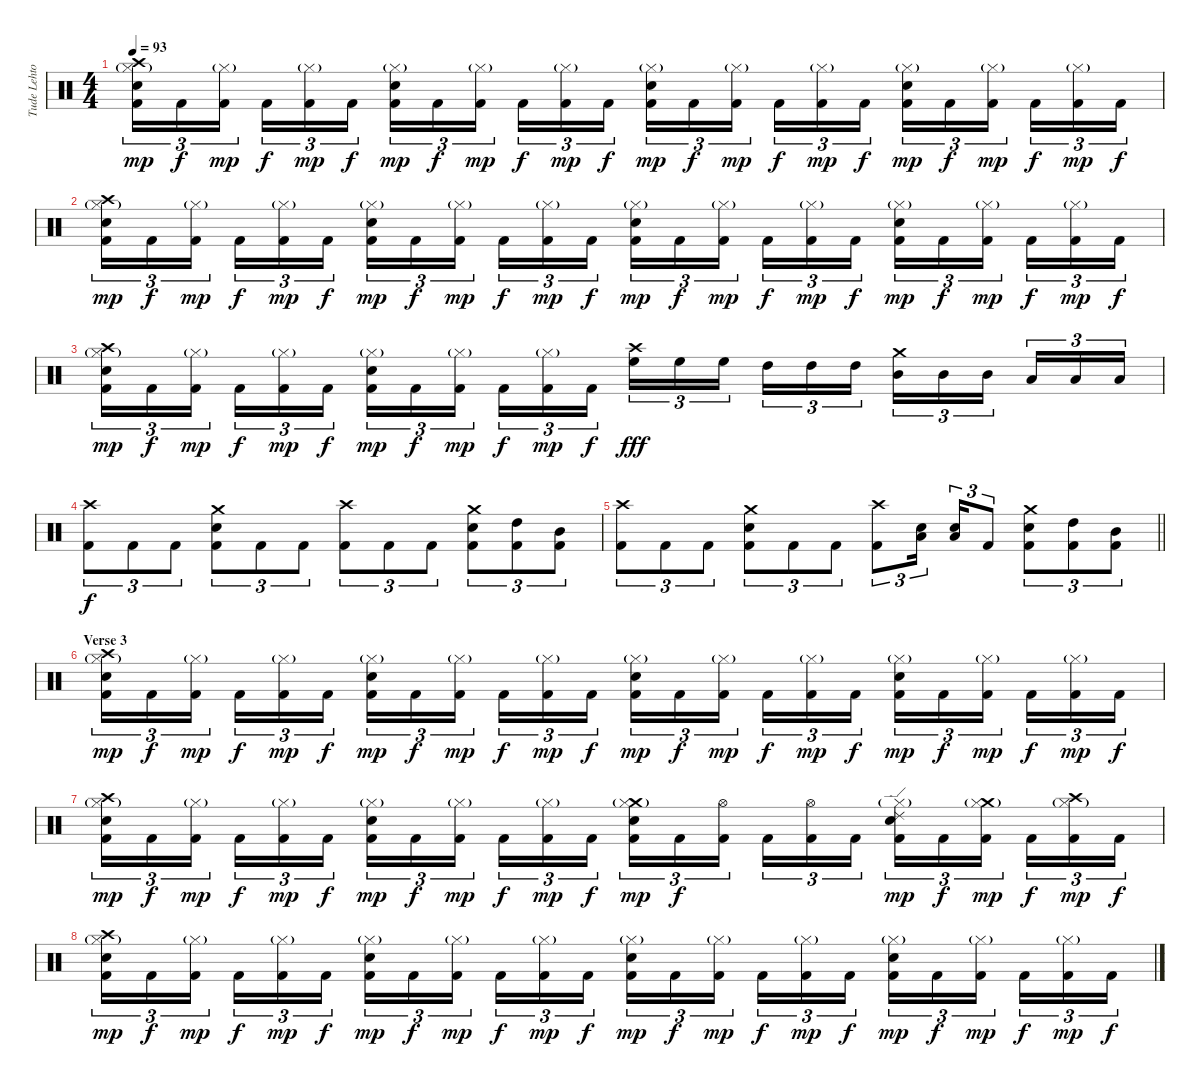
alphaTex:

\track ("Tude Lehtonen" "Tude Lehto") {instrument percussion}
\staff {score}
\articulation defaults
\ts (4 4)
\tempo 93
\clef neutral
\ks c
("Crash high (hit)" "Hi-Hat (closed)"{g} "Electric Snare (hit)" "Kick (hit) 2").16{tu (3 2) dy mp} "Kick (hit) 2".16{tu (3 2) dy f} ("Hi-Hat (closed)"{g} "Kick (hit) 2").16{tu (3 2) dy mp} "Kick (hit) 2".16{tu (3 2) dy f} ("Hi-Hat (closed)"{g} "Kick (hit) 2").16{tu (3 2) dy mp} "Kick (hit) 2".16{tu (3 2) dy f} ("Hi-Hat (closed)"{g} "Electric Snare (hit)" "Kick (hit) 2").16{tu (3 2) dy mp} "Kick (hit) 2".16{tu (3 2) dy f} ("Hi-Hat (closed)"{g} "Kick (hit) 2").16{tu (3 2) dy mp} "Kick (hit) 2".16{tu (3 2) dy f} ("Hi-Hat (closed)"{g} "Kick (hit) 2").16{tu (3 2) dy mp} "Kick (hit) 2".16{tu (3 2) dy f} ("Hi-Hat (closed)"{g} "Electric Snare (hit)" "Kick (hit) 2").16{tu (3 2) dy mp} "Kick (hit) 2".16{tu (3 2) dy f} ("Hi-Hat (closed)"{g} "Kick (hit) 2").16{tu (3 2) dy mp} "Kick (hit) 2".16{tu (3 2) dy f} ("Hi-Hat (closed)"{g} "Kick (hit) 2").16{tu (3 2) dy mp} "Kick (hit) 2".16{tu (3 2) dy f} ("Hi-Hat (closed)"{g} "Electric Snare (hit)" "Kick (hit) 2").16{tu (3 2) dy mp} "Kick (hit) 2".16{tu (3 2) dy f} ("Hi-Hat (closed)"{g} "Kick (hit) 2").16{tu (3 2) dy mp} "Kick (hit) 2".16{tu (3 2) dy f} ("Hi-Hat (closed)"{g} "Kick (hit) 2").16{tu (3 2) dy mp} "Kick (hit) 2".16{tu (3 2) dy f} |
("Crash high (hit)" "Hi-Hat (closed)"{g} "Electric Snare (hit)" "Kick (hit) 2").16{tu (3 2) dy mp} "Kick (hit) 2".16{tu (3 2) dy f} ("Hi-Hat (closed)"{g} "Kick (hit) 2").16{tu (3 2) dy mp} "Kick (hit) 2".16{tu (3 2) dy f} ("Hi-Hat (closed)"{g} "Kick (hit) 2").16{tu (3 2) dy mp} "Kick (hit) 2".16{tu (3 2) dy f} ("Hi-Hat (closed)"{g} "Electric Snare (hit)" "Kick (hit) 2").16{tu (3 2) dy mp} "Kick (hit) 2".16{tu (3 2) dy f} ("Hi-Hat (closed)"{g} "Kick (hit) 2").16{tu (3 2) dy mp} "Kick (hit) 2".16{tu (3 2) dy f} ("Hi-Hat (closed)"{g} "Kick (hit) 2").16{tu (3 2) dy mp} "Kick (hit) 2".16{tu (3 2) dy f} ("Hi-Hat (closed)"{g} "Electric Snare (hit)" "Kick (hit) 2").16{tu (3 2) dy mp} "Kick (hit) 2".16{tu (3 2) dy f} ("Hi-Hat (closed)"{g} "Kick (hit) 2").16{tu (3 2) dy mp} "Kick (hit) 2".16{tu (3 2) dy f} ("Hi-Hat (closed)"{g} "Kick (hit) 2").16{tu (3 2) dy mp} "Kick (hit) 2".16{tu (3 2) dy f} ("Hi-Hat (closed)"{g} "Electric Snare (hit)" "Kick (hit) 2").16{tu (3 2) dy mp} "Kick (hit) 2".16{tu (3 2) dy f} ("Hi-Hat (closed)"{g} "Kick (hit) 2").16{tu (3 2) dy mp} "Kick (hit) 2".16{tu (3 2) dy f} ("Hi-Hat (closed)"{g} "Kick (hit) 2").16{tu (3 2) dy mp} "Kick (hit) 2".16{tu (3 2) dy f} |
("Crash high (hit)" "Hi-Hat (closed)"{g} "Electric Snare (hit)" "Kick (hit) 2").16{tu (3 2) dy mp} "Kick (hit) 2".16{tu (3 2) dy f} ("Hi-Hat (closed)"{g} "Kick (hit) 2").16{tu (3 2) dy mp} "Kick (hit) 2".16{tu (3 2) dy f} ("Hi-Hat (closed)"{g} "Kick (hit) 2").16{tu (3 2) dy mp} "Kick (hit) 2".16{tu (3 2) dy f} ("Hi-Hat (closed)"{g} "Electric Snare (hit)" "Kick (hit) 2").16{tu (3 2) dy mp} "Kick (hit) 2".16{tu (3 2) dy f} ("Hi-Hat (closed)"{g} "Kick (hit) 2").16{tu (3 2) dy mp} "Kick (hit) 2".16{tu (3 2) dy f} ("Hi-Hat (closed)"{g} "Kick (hit) 2").16{tu (3 2) dy mp} "Kick (hit) 2".16{tu (3 2) dy f} ("Crash high (hit)" "High Floor Tom (hit)").16{tu (3 2) dy fff} "High Floor Tom (hit)".16{tu (3 2)} "High Floor Tom (hit)".16{tu (3 2)} "High Tom (hit)".16{tu (3 2)} "High Tom (hit)".16{tu (3 2)} "High Tom (hit)".16{tu (3 2)} ("Crash medium (hit)" "Mid Tom (hit)").16{tu (3 2)} "Mid Tom (hit)".16{tu (3 2)} "Mid Tom (hit)".16{tu (3 2)} "Low Tom (hit)".16{tu (3 2)} "Low Tom (hit)".16{tu (3 2)} "Low Tom (hit)".16{tu (3 2)} |
("Crash high (hit)" "Kick (hit) 2").8{tu (3 2) dy f} "Kick (hit) 2".8{tu (3 2)} "Kick (hit) 2".8{tu (3 2)} ("Crash medium (hit)" "Electric Snare (hit)" "Kick (hit) 2").8{tu (3 2)} "Kick (hit) 2".8{tu (3 2)} "Kick (hit) 2".8{tu (3 2)} ("Crash high (hit)" "Kick (hit) 2").8{tu (3 2)} "Kick (hit) 2".8{tu (3 2)} "Kick (hit) 2".8{tu (3 2)} ("Crash medium (hit)" "Electric Snare (hit)" "Kick (hit) 2").8{tu (3 2)} ("High Tom (hit)" "Kick (hit) 2").8{tu (3 2)} ("Mid Tom (hit)" "Kick (hit) 2").8{tu (3 2)} |
\barLineRight lightlight
("Crash high (hit)" "Kick (hit) 2").8{tu (3 2)} "Kick (hit) 2".8{tu (3 2)} "Kick (hit) 2".8{tu (3 2)} ("Crash medium (hit)" "Electric Snare (hit)" "Kick (hit) 2").8{tu (3 2)} "Kick (hit) 2".8{tu (3 2)} "Kick (hit) 2".8{tu (3 2)} ("Crash high (hit)" "Kick (hit) 2").8{tu (3 2)} ("Low Tom (hit)" "Electric Snare (hit)").16{tu (3 2)} ("Low Tom (hit)" "Electric Snare (hit)").16{tu (3 2)} "Kick (hit) 2".8{tu (3 2)} ("Crash medium (hit)" "Electric Snare (hit)" "Kick (hit) 2").8{tu (3 2)} ("High Tom (hit)" "Kick (hit) 2").8{tu (3 2)} ("Mid Tom (hit)" "Kick (hit) 2").8{tu (3 2)} |
\section ("" "Verse 3")
("Crash high (hit)" "Hi-Hat (closed)"{g} "Electric Snare (hit)" "Kick (hit) 2").16{tu (3 2) dy mp} "Kick (hit) 2".16{tu (3 2) dy f} ("Hi-Hat (closed)"{g} "Kick (hit) 2").16{tu (3 2) dy mp} "Kick (hit) 2".16{tu (3 2) dy f} ("Hi-Hat (closed)"{g} "Kick (hit) 2").16{tu (3 2) dy mp} "Kick (hit) 2".16{tu (3 2) dy f} ("Hi-Hat (closed)"{g} "Electric Snare (hit)" "Kick (hit) 2").16{tu (3 2) dy mp} "Kick (hit) 2".16{tu (3 2) dy f} ("Hi-Hat (closed)"{g} "Kick (hit) 2").16{tu (3 2) dy mp} "Kick (hit) 2".16{tu (3 2) dy f} ("Hi-Hat (closed)"{g} "Kick (hit) 2").16{tu (3 2) dy mp} "Kick (hit) 2".16{tu (3 2) dy f} ("Hi-Hat (closed)"{g} "Electric Snare (hit)" "Kick (hit) 2").16{tu (3 2) dy mp} "Kick (hit) 2".16{tu (3 2) dy f} ("Hi-Hat (closed)"{g} "Kick (hit) 2").16{tu (3 2) dy mp} "Kick (hit) 2".16{tu (3 2) dy f} ("Hi-Hat (closed)"{g} "Kick (hit) 2").16{tu (3 2) dy mp} "Kick (hit) 2".16{tu (3 2) dy f} ("Hi-Hat (closed)"{g} "Electric Snare (hit)" "Kick (hit) 2").16{tu (3 2) dy mp} "Kick (hit) 2".16{tu (3 2) dy f} ("Hi-Hat (closed)"{g} "Kick (hit) 2").16{tu (3 2) dy mp} "Kick (hit) 2".16{tu (3 2) dy f} ("Hi-Hat (closed)"{g} "Kick (hit) 2").16{tu (3 2) dy mp} "Kick (hit) 2".16{tu (3 2) dy f} |
("Crash high (hit)" "Hi-Hat (closed)"{g} "Electric Snare (hit)" "Kick (hit) 2").16{tu (3 2) dy mp} "Kick (hit) 2".16{tu (3 2) dy f} ("Hi-Hat (closed)"{g} "Kick (hit) 2").16{tu (3 2) dy mp} "Kick (hit) 2".16{tu (3 2) dy f} ("Hi-Hat (closed)"{g} "Kick (hit) 2").16{tu (3 2) dy mp} "Kick (hit) 2".16{tu (3 2) dy f} ("Hi-Hat (closed)"{g} "Electric Snare (hit)" "Kick (hit) 2").16{tu (3 2) dy mp} "Kick (hit) 2".16{tu (3 2) dy f} ("Hi-Hat (closed)"{g} "Kick (hit) 2").16{tu (3 2) dy mp} "Kick (hit) 2".16{tu (3 2) dy f} ("Hi-Hat (closed)"{g} "Kick (hit) 2").16{tu (3 2) dy mp} "Kick (hit) 2".16{tu (3 2) dy f} ("Crash medium (hit)" "Hi-Hat (closed)"{g} "Electric Snare (hit)" "Kick (hit) 2").16{tu (3 2) dy mp} "Kick (hit) 2".16{tu (3 2) dy f} ("Hi-Hat (open)" "Kick (hit) 2").16{tu (3 2)} "Kick (hit) 2".16{tu (3 2)} ("Hi-Hat (open)" "Kick (hit) 2").16{tu (3 2)} "Kick (hit) 2".16{tu (3 2)} ("Ride (edge) 2" "Hi-Hat (closed)"{g} "Electric Snare (hit)" "Kick (hit) 2").16{tu (3 2) dy mp} "Kick (hit) 2".16{tu (3 2) dy f} ("Crash medium (hit)" "Hi-Hat (closed)"{g} "Kick (hit) 2").16{tu (3 2) dy mp} "Kick (hit) 2".16{tu (3 2) dy f} ("Crash high (hit)" "Hi-Hat (closed)"{g} "Kick (hit) 2").16{tu (3 2) dy mp} "Kick (hit) 2".16{tu (3 2) dy f} |
("Crash high (hit)" "Hi-Hat (closed)"{g} "Electric Snare (hit)" "Kick (hit) 2").16{tu (3 2) dy mp} "Kick (hit) 2".16{tu (3 2) dy f} ("Hi-Hat (closed)"{g} "Kick (hit) 2").16{tu (3 2) dy mp} "Kick (hit) 2".16{tu (3 2) dy f} ("Hi-Hat (closed)"{g} "Kick (hit) 2").16{tu (3 2) dy mp} "Kick (hit) 2".16{tu (3 2) dy f} ("Hi-Hat (closed)"{g} "Electric Snare (hit)" "Kick (hit) 2").16{tu (3 2) dy mp} "Kick (hit) 2".16{tu (3 2) dy f} ("Hi-Hat (closed)"{g} "Kick (hit) 2").16{tu (3 2) dy mp} "Kick (hit) 2".16{tu (3 2) dy f} ("Hi-Hat (closed)"{g} "Kick (hit) 2").16{tu (3 2) dy mp} "Kick (hit) 2".16{tu (3 2) dy f} ("Hi-Hat (closed)"{g} "Electric Snare (hit)" "Kick (hit) 2").16{tu (3 2) dy mp} "Kick (hit) 2".16{tu (3 2) dy f} ("Hi-Hat (closed)"{g} "Kick (hit) 2").16{tu (3 2) dy mp} "Kick (hit) 2".16{tu (3 2) dy f} ("Hi-Hat (closed)"{g} "Kick (hit) 2").16{tu (3 2) dy mp} "Kick (hit) 2".16{tu (3 2) dy f} ("Hi-Hat (closed)"{g} "Electric Snare (hit)" "Kick (hit) 2").16{tu (3 2) dy mp} "Kick (hit) 2".16{tu (3 2) dy f} ("Hi-Hat (closed)"{g} "Kick (hit) 2").16{tu (3 2) dy mp} "Kick (hit) 2".16{tu (3 2) dy f} ("Hi-Hat (closed)"{g} "Kick (hit) 2").16{tu (3 2) dy mp} "Kick (hit) 2".16{tu (3 2) dy f}
